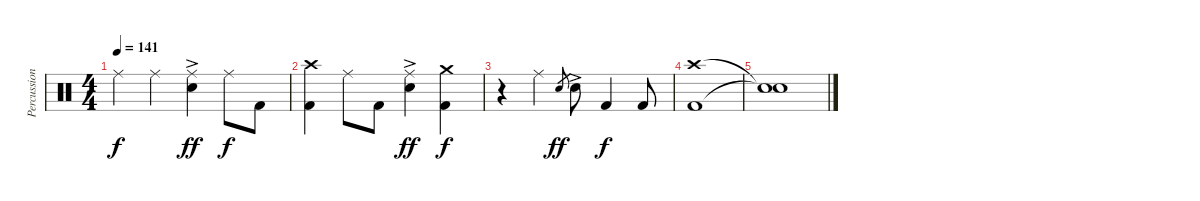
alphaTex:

\track ("Percussion" "Percussion") {instrument percussion}
\staff {score}
\articulation defaults
\ts (4 4)
\tempo 141
\clef neutral
\ks c "Ride (middle)".4{dy f} "Ride (middle)".4
("Ride (middle)" "Electric Snare (hit)"{ac}).4{dy ff} "Ride (middle)".8{dy f} "Kick (hit) 2".8 |
("Crash high (hit)" "Kick (hit) 2").4 "Ride (middle)".8 "Kick (hit) 2".8 ("Ride (middle)" "Electric Snare (hit)"{ac}).4{dy ff} ("Crash medium (hit)" "Kick (hit) 2").4{dy f} |
r.4 "Ride (middle)".4 "Electric Snare (hit)".8{gr dy ff} "Electric Snare (hit)"{ac}.8 "Kick (hit) 2".4{dy f} "Kick (hit) 2".8 |
("Crash high (hit)" "Kick (hit) 2").1 |
("Snare (hit)"{t} "Snare (hit)"{t}).1
